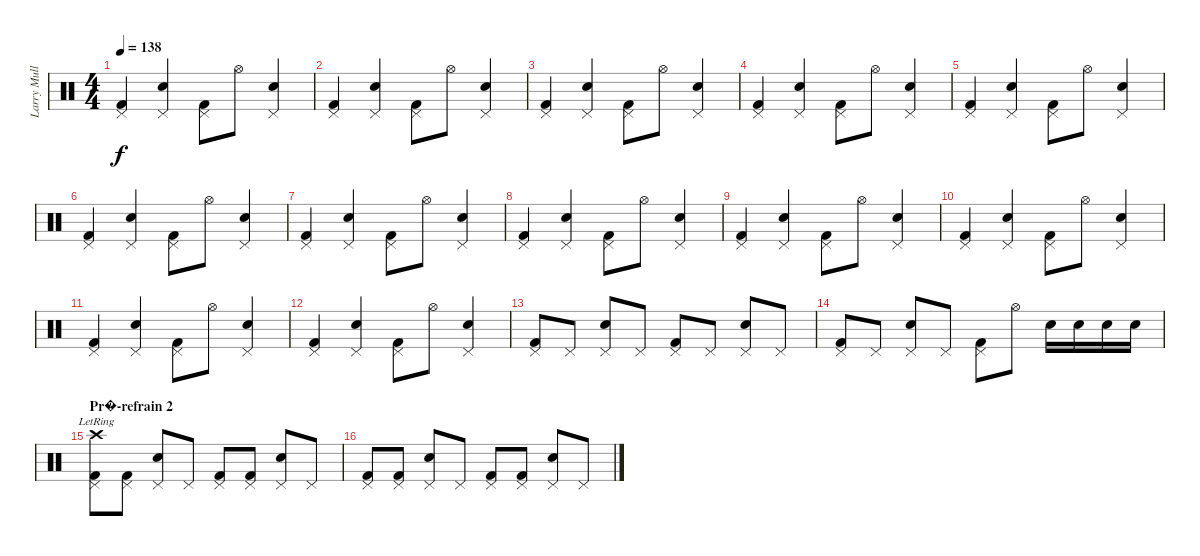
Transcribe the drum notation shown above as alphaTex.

\track ("Larry Mullen" "Larry Mull") {instrument percussion}
\staff {score}
\articulation defaults
\ts (4 4)
\tempo 138
\clef neutral
\ks c
("Kick (hit) 2" "Pedal Hi-Hat (hit)").4{dy f} ("Snare (hit) 2" "Pedal Hi-Hat (hit)").4 ("Kick (hit) 2" "Pedal Hi-Hat (hit)").8 "Hi-Hat (open)".8 ("Snare (hit) 2" "Pedal Hi-Hat (hit)").4 |
("Kick (hit) 2" "Pedal Hi-Hat (hit)").4 ("Snare (hit) 2" "Pedal Hi-Hat (hit)").4 ("Kick (hit) 2" "Pedal Hi-Hat (hit)").8 "Hi-Hat (open)".8 ("Snare (hit) 2" "Pedal Hi-Hat (hit)").4 |
("Kick (hit) 2" "Pedal Hi-Hat (hit)").4 ("Snare (hit) 2" "Pedal Hi-Hat (hit)").4 ("Kick (hit) 2" "Pedal Hi-Hat (hit)").8 "Hi-Hat (open)".8 ("Snare (hit) 2" "Pedal Hi-Hat (hit)").4 |
("Kick (hit) 2" "Pedal Hi-Hat (hit)").4 ("Snare (hit) 2" "Pedal Hi-Hat (hit)").4 ("Kick (hit) 2" "Pedal Hi-Hat (hit)").8 "Hi-Hat (open)".8 ("Snare (hit) 2" "Pedal Hi-Hat (hit)").4 |
("Kick (hit) 2" "Pedal Hi-Hat (hit)").4 ("Snare (hit) 2" "Pedal Hi-Hat (hit)").4 ("Kick (hit) 2" "Pedal Hi-Hat (hit)").8 "Hi-Hat (open)".8 ("Snare (hit) 2" "Pedal Hi-Hat (hit)").4 |
("Kick (hit) 2" "Pedal Hi-Hat (hit)").4 ("Snare (hit) 2" "Pedal Hi-Hat (hit)").4 ("Kick (hit) 2" "Pedal Hi-Hat (hit)").8 "Hi-Hat (open)".8 ("Snare (hit) 2" "Pedal Hi-Hat (hit)").4 |
("Kick (hit) 2" "Pedal Hi-Hat (hit)").4 ("Snare (hit) 2" "Pedal Hi-Hat (hit)").4 ("Kick (hit) 2" "Pedal Hi-Hat (hit)").8 "Hi-Hat (open)".8 ("Snare (hit) 2" "Pedal Hi-Hat (hit)").4 |
("Kick (hit) 2" "Pedal Hi-Hat (hit)").4 ("Snare (hit) 2" "Pedal Hi-Hat (hit)").4 ("Kick (hit) 2" "Pedal Hi-Hat (hit)").8 "Hi-Hat (open)".8 ("Snare (hit) 2" "Pedal Hi-Hat (hit)").4 |
("Kick (hit) 2" "Pedal Hi-Hat (hit)").4 ("Snare (hit) 2" "Pedal Hi-Hat (hit)").4 ("Kick (hit) 2" "Pedal Hi-Hat (hit)").8 "Hi-Hat (open)".8 ("Snare (hit) 2" "Pedal Hi-Hat (hit)").4 |
("Kick (hit) 2" "Pedal Hi-Hat (hit)").4 ("Snare (hit) 2" "Pedal Hi-Hat (hit)").4 ("Kick (hit) 2" "Pedal Hi-Hat (hit)").8 "Hi-Hat (open)".8 ("Snare (hit) 2" "Pedal Hi-Hat (hit)").4 |
("Kick (hit) 2" "Pedal Hi-Hat (hit)").4 ("Snare (hit) 2" "Pedal Hi-Hat (hit)").4 ("Kick (hit) 2" "Pedal Hi-Hat (hit)").8 "Hi-Hat (open)".8 ("Snare (hit) 2" "Pedal Hi-Hat (hit)").4 |
("Kick (hit) 2" "Pedal Hi-Hat (hit)").4 ("Snare (hit) 2" "Pedal Hi-Hat (hit)").4 ("Kick (hit) 2" "Pedal Hi-Hat (hit)").8 "Hi-Hat (open)".8 ("Snare (hit) 2" "Pedal Hi-Hat (hit)").4 |
("Kick (hit) 2" "Pedal Hi-Hat (hit)").8 "Pedal Hi-Hat (hit)".8 ("Snare (hit) 2" "Pedal Hi-Hat (hit)").8 "Pedal Hi-Hat (hit)".8 ("Kick (hit) 2" "Pedal Hi-Hat (hit)").8 "Pedal Hi-Hat (hit)".8 ("Snare (hit) 2" "Pedal Hi-Hat (hit)").8 "Pedal Hi-Hat (hit)".8 |
("Kick (hit) 2" "Pedal Hi-Hat (hit)").8 "Pedal Hi-Hat (hit)".8 ("Snare (hit) 2" "Pedal Hi-Hat (hit)").8 "Pedal Hi-Hat (hit)".8 ("Kick (hit) 2" "Pedal Hi-Hat (hit)").8 "Hi-Hat (open)".8 "Snare (hit) 2".16 "Snare (hit) 2".16 "Snare (hit) 2".16 "Snare (hit) 2".16 |
\section ("" "Pr�-refrain 2")
("Kick (hit) 2" "Crash high (hit)"{lr} "Pedal Hi-Hat (hit)").8 ("Kick (hit) 2" "Pedal Hi-Hat (hit)").8 ("Snare (hit) 2" "Pedal Hi-Hat (hit)").8 "Pedal Hi-Hat (hit)".8 ("Kick (hit) 2" "Pedal Hi-Hat (hit)").8 ("Kick (hit) 2" "Pedal Hi-Hat (hit)").8 ("Snare (hit) 2" "Pedal Hi-Hat (hit)").8 "Pedal Hi-Hat (hit)".8 |
("Kick (hit) 2" "Pedal Hi-Hat (hit)").8 ("Kick (hit) 2" "Pedal Hi-Hat (hit)").8 ("Snare (hit) 2" "Pedal Hi-Hat (hit)").8 "Pedal Hi-Hat (hit)".8 ("Kick (hit) 2" "Pedal Hi-Hat (hit)").8 ("Kick (hit) 2" "Pedal Hi-Hat (hit)").8 ("Snare (hit) 2" "Pedal Hi-Hat (hit)").8 "Pedal Hi-Hat (hit)".8
